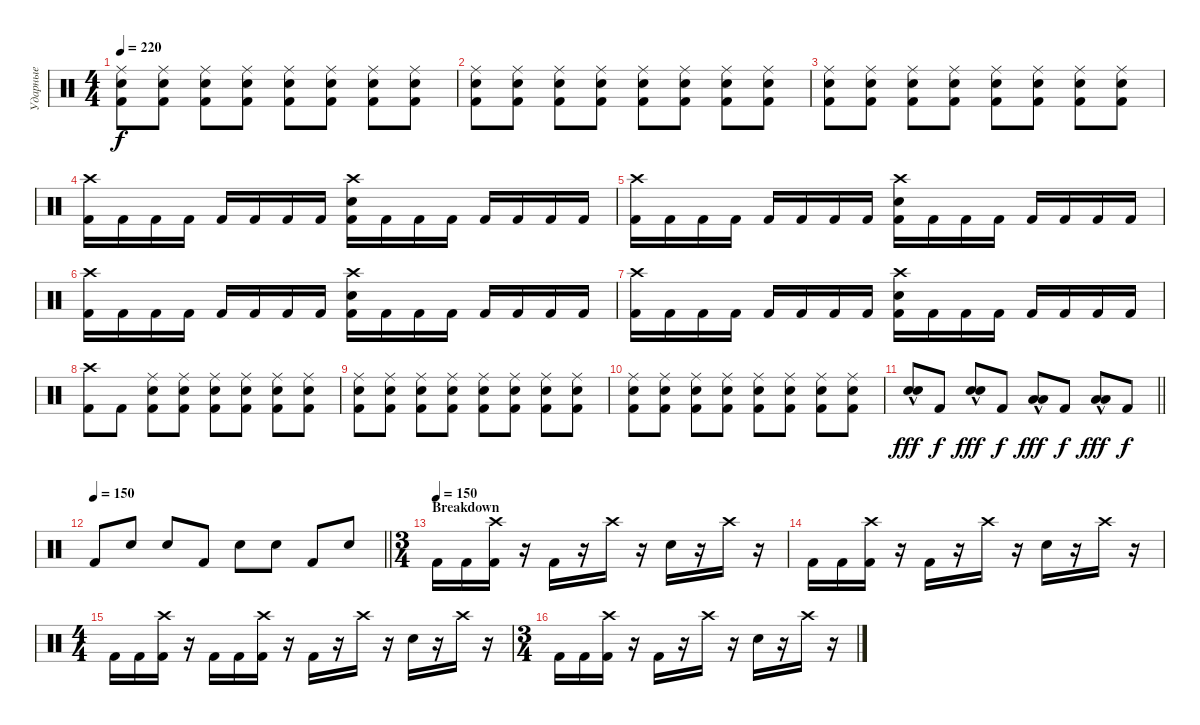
\track ("Ударные" "Ударные") {instrument percussion}
\staff {score}
\articulation defaults
\ts (4 4)
\tempo 220
\clef neutral
\ks c
("Ride (middle)" "Electric Snare (hit)" "Kick (hit) 2").8{dy f} ("Ride (middle)" "Electric Snare (hit)" "Kick (hit) 2").8 ("Ride (middle)" "Electric Snare (hit)" "Kick (hit) 2").8 ("Ride (middle)" "Electric Snare (hit)" "Kick (hit) 2").8 ("Ride (middle)" "Electric Snare (hit)" "Kick (hit) 2").8 ("Ride (middle)" "Electric Snare (hit)" "Kick (hit) 2").8 ("Ride (middle)" "Electric Snare (hit)" "Kick (hit) 2").8 ("Ride (middle)" "Electric Snare (hit)" "Kick (hit) 2").8 |
("Ride (middle)" "Electric Snare (hit)" "Kick (hit) 2").8 ("Ride (middle)" "Electric Snare (hit)" "Kick (hit) 2").8 ("Ride (middle)" "Electric Snare (hit)" "Kick (hit) 2").8 ("Ride (middle)" "Electric Snare (hit)" "Kick (hit) 2").8 ("Ride (middle)" "Electric Snare (hit)" "Kick (hit) 2").8 ("Ride (middle)" "Electric Snare (hit)" "Kick (hit) 2").8 ("Ride (middle)" "Electric Snare (hit)" "Kick (hit) 2").8 ("Ride (middle)" "Electric Snare (hit)" "Kick (hit) 2").8 |
("Ride (middle)" "Electric Snare (hit)" "Kick (hit) 2").8 ("Ride (middle)" "Electric Snare (hit)" "Kick (hit) 2").8 ("Ride (middle)" "Electric Snare (hit)" "Kick (hit) 2").8 ("Ride (middle)" "Electric Snare (hit)" "Kick (hit) 2").8 ("Ride (middle)" "Electric Snare (hit)" "Kick (hit) 2").8 ("Ride (middle)" "Electric Snare (hit)" "Kick (hit) 2").8 ("Ride (middle)" "Electric Snare (hit)" "Kick (hit) 2").8 ("Ride (middle)" "Electric Snare (hit)" "Kick (hit) 2").8 |
("Crash high (hit)" "Kick (hit) 2").16 "Kick (hit) 2".16 "Kick (hit) 2".16 "Kick (hit) 2".16 "Kick (hit) 2".16 "Kick (hit) 2".16 "Kick (hit) 2".16 "Kick (hit) 2".16 ("Crash high (hit)" "Electric Snare (hit)" "Kick (hit) 2").16 "Kick (hit) 2".16 "Kick (hit) 2".16 "Kick (hit) 2".16 "Kick (hit) 2".16 "Kick (hit) 2".16 "Kick (hit) 2".16 "Kick (hit) 2".16 |
("Crash high (hit)" "Kick (hit) 2").16 "Kick (hit) 2".16 "Kick (hit) 2".16 "Kick (hit) 2".16 "Kick (hit) 2".16 "Kick (hit) 2".16 "Kick (hit) 2".16 "Kick (hit) 2".16 ("Crash high (hit)" "Electric Snare (hit)" "Kick (hit) 2").16 "Kick (hit) 2".16 "Kick (hit) 2".16 "Kick (hit) 2".16 "Kick (hit) 2".16 "Kick (hit) 2".16 "Kick (hit) 2".16 "Kick (hit) 2".16 |
("Crash high (hit)" "Kick (hit) 2").16 "Kick (hit) 2".16 "Kick (hit) 2".16 "Kick (hit) 2".16 "Kick (hit) 2".16 "Kick (hit) 2".16 "Kick (hit) 2".16 "Kick (hit) 2".16 ("Crash high (hit)" "Electric Snare (hit)" "Kick (hit) 2").16 "Kick (hit) 2".16 "Kick (hit) 2".16 "Kick (hit) 2".16 "Kick (hit) 2".16 "Kick (hit) 2".16 "Kick (hit) 2".16 "Kick (hit) 2".16 |
("Crash high (hit)" "Kick (hit) 2").16 "Kick (hit) 2".16 "Kick (hit) 2".16 "Kick (hit) 2".16 "Kick (hit) 2".16 "Kick (hit) 2".16 "Kick (hit) 2".16 "Kick (hit) 2".16 ("Crash high (hit)" "Electric Snare (hit)" "Kick (hit) 2").16 "Kick (hit) 2".16 "Kick (hit) 2".16 "Kick (hit) 2".16 "Kick (hit) 2".16 "Kick (hit) 2".16 "Kick (hit) 2".16 "Kick (hit) 2".16 |
("Crash high (hit)" "Kick (hit) 2").8 "Kick (hit) 2".8 ("Ride (middle)" "Electric Snare (hit)" "Kick (hit) 2").8 ("Ride (middle)" "Electric Snare (hit)" "Kick (hit) 2").8 ("Ride (middle)" "Electric Snare (hit)" "Kick (hit) 2").8 ("Ride (middle)" "Electric Snare (hit)" "Kick (hit) 2").8 ("Ride (middle)" "Electric Snare (hit)" "Kick (hit) 2").8 ("Ride (middle)" "Electric Snare (hit)" "Kick (hit) 2").8 |
("Ride (middle)" "Electric Snare (hit)" "Kick (hit) 2").8 ("Ride (middle)" "Electric Snare (hit)" "Kick (hit) 2").8 ("Ride (middle)" "Electric Snare (hit)" "Kick (hit) 2").8 ("Ride (middle)" "Electric Snare (hit)" "Kick (hit) 2").8 ("Ride (middle)" "Electric Snare (hit)" "Kick (hit) 2").8 ("Ride (middle)" "Electric Snare (hit)" "Kick (hit) 2").8 ("Ride (middle)" "Electric Snare (hit)" "Kick (hit) 2").8 ("Ride (middle)" "Electric Snare (hit)" "Kick (hit) 2").8 |
("Ride (middle)" "Electric Snare (hit)" "Kick (hit) 2").8 ("Ride (middle)" "Electric Snare (hit)" "Kick (hit) 2").8 ("Ride (middle)" "Electric Snare (hit)" "Kick (hit) 2").8 ("Ride (middle)" "Electric Snare (hit)" "Kick (hit) 2").8 ("Ride (middle)" "Electric Snare (hit)" "Kick (hit) 2").8 ("Ride (middle)" "Electric Snare (hit)" "Kick (hit) 2").8 ("Ride (middle)" "Electric Snare (hit)" "Kick (hit) 2").8 ("Ride (middle)" "Electric Snare (hit)" "Kick (hit) 2").8 |
\barLineRight lightlight
("Electric Snare (hit)"{hac} "Electric Snare (hit)"{hac}).8{dy fff} "Kick (hit) 2".8{dy f} ("Electric Snare (hit)"{hac} "Electric Snare (hit)"{hac}).8{dy fff} "Kick (hit) 2".8{dy f} ("Low Tom (hit)"{hac} "Low Tom (hit)"{hac}).8{dy fff} "Kick (hit) 2".8{dy f} ("Low Floor Tom (hit)"{hac} "Low Floor Tom (hit)"{hac}).8{dy fff} "Kick (hit) 2".8{dy f} |
\tempo 150
\barLineRight lightlight "Kick (hit) 2".8 "Electric Snare (hit)".8 "Electric Snare (hit)".8 "Kick (hit) 2".8 "Electric Snare (hit)".8 "Electric Snare (hit)".8 "Kick (hit) 2".8 "Electric Snare (hit)".8
|
\ts (3 4)
\section ("" "Breakdown")
\tempo (150)
"Kick (hit) 2".16 "Kick (hit) 2".16 ("Crash high (hit)" "Kick (hit) 2").16 r.16 "Kick (hit) 2".16 r.16 "Crash high (hit)".16 r.16 "Electric Snare (hit)".16 r.16 "Crash high (hit)".16 r.16 |
"Kick (hit) 2".16 "Kick (hit) 2".16 ("Crash high (hit)" "Kick (hit) 2").16 r.16 "Kick (hit) 2".16 r.16 "Crash high (hit)".16 r.16 "Electric Snare (hit)".16 r.16 "Crash high (hit)".16 r.16 |
\ts (4 4)
"Kick (hit) 2".16 "Kick (hit) 2".16 ("Crash high (hit)" "Kick (hit) 2").16 r.16 "Kick (hit) 2".16 "Kick (hit) 2".16 ("Crash high (hit)" "Kick (hit) 2").16 r.16 "Kick (hit) 2".16 r.16 "Crash high (hit)".16 r.16 "Electric Snare (hit)".16 r.16 "Crash high (hit)".16 r.16 |
\ts (3 4)
"Kick (hit) 2".16 "Kick (hit) 2".16 ("Crash high (hit)" "Kick (hit) 2").16 r.16 "Kick (hit) 2".16 r.16 "Crash high (hit)".16 r.16 "Electric Snare (hit)".16 r.16 "Crash high (hit)".16 r.16
